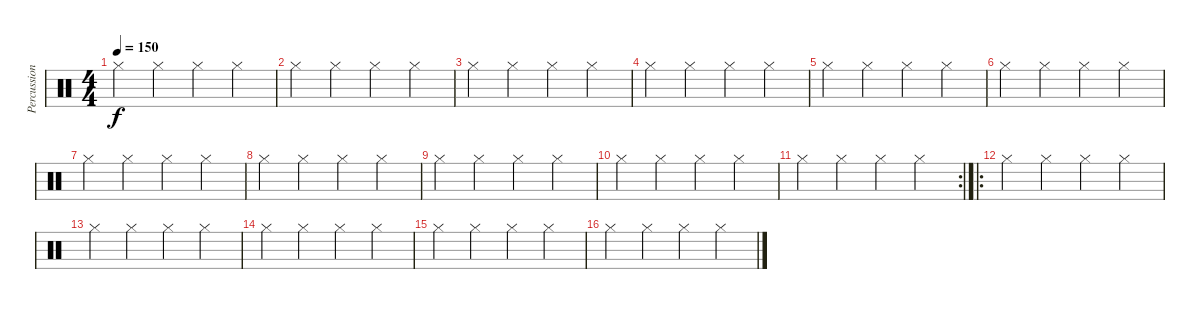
\track ("Percussioni" "Percussion") {instrument percussion}
\staff {score}
\articulation defaults
\ts (4 4)
\tempo 150
\clef neutral
\ks c "Hi-Hat (closed)".4{dy f} "Hi-Hat (closed)".4 "Hi-Hat (closed)".4 "Hi-Hat (closed)".4
|
"Hi-Hat (closed)".4 "Hi-Hat (closed)".4 "Hi-Hat (closed)".4 "Hi-Hat (closed)".4 |
"Hi-Hat (closed)".4 "Hi-Hat (closed)".4 "Hi-Hat (closed)".4 "Hi-Hat (closed)".4 |
"Hi-Hat (closed)".4 "Hi-Hat (closed)".4 "Hi-Hat (closed)".4 "Hi-Hat (closed)".4 |
"Hi-Hat (closed)".4 "Hi-Hat (closed)".4 "Hi-Hat (closed)".4 "Hi-Hat (closed)".4 |
"Hi-Hat (closed)".4 "Hi-Hat (closed)".4 "Hi-Hat (closed)".4 "Hi-Hat (closed)".4 |
"Hi-Hat (closed)".4 "Hi-Hat (closed)".4 "Hi-Hat (closed)".4 "Hi-Hat (closed)".4 |
"Hi-Hat (closed)".4 "Hi-Hat (closed)".4 "Hi-Hat (closed)".4 "Hi-Hat (closed)".4 |
"Hi-Hat (closed)".4 "Hi-Hat (closed)".4 "Hi-Hat (closed)".4 "Hi-Hat (closed)".4 |
"Hi-Hat (closed)".4 "Hi-Hat (closed)".4 "Hi-Hat (closed)".4 "Hi-Hat (closed)".4 |
\rc 2 "Hi-Hat (closed)".4 "Hi-Hat (closed)".4 "Hi-Hat (closed)".4 "Hi-Hat (closed)".4
|
\ro "Hi-Hat (closed)".4 "Hi-Hat (closed)".4 "Hi-Hat (closed)".4 "Hi-Hat (closed)".4
|
"Hi-Hat (closed)".4 "Hi-Hat (closed)".4 "Hi-Hat (closed)".4 "Hi-Hat (closed)".4 |
"Hi-Hat (closed)".4 "Hi-Hat (closed)".4 "Hi-Hat (closed)".4 "Hi-Hat (closed)".4 |
"Hi-Hat (closed)".4 "Hi-Hat (closed)".4 "Hi-Hat (closed)".4 "Hi-Hat (closed)".4 |
"Hi-Hat (closed)".4 "Hi-Hat (closed)".4 "Hi-Hat (closed)".4 "Hi-Hat (closed)".4
